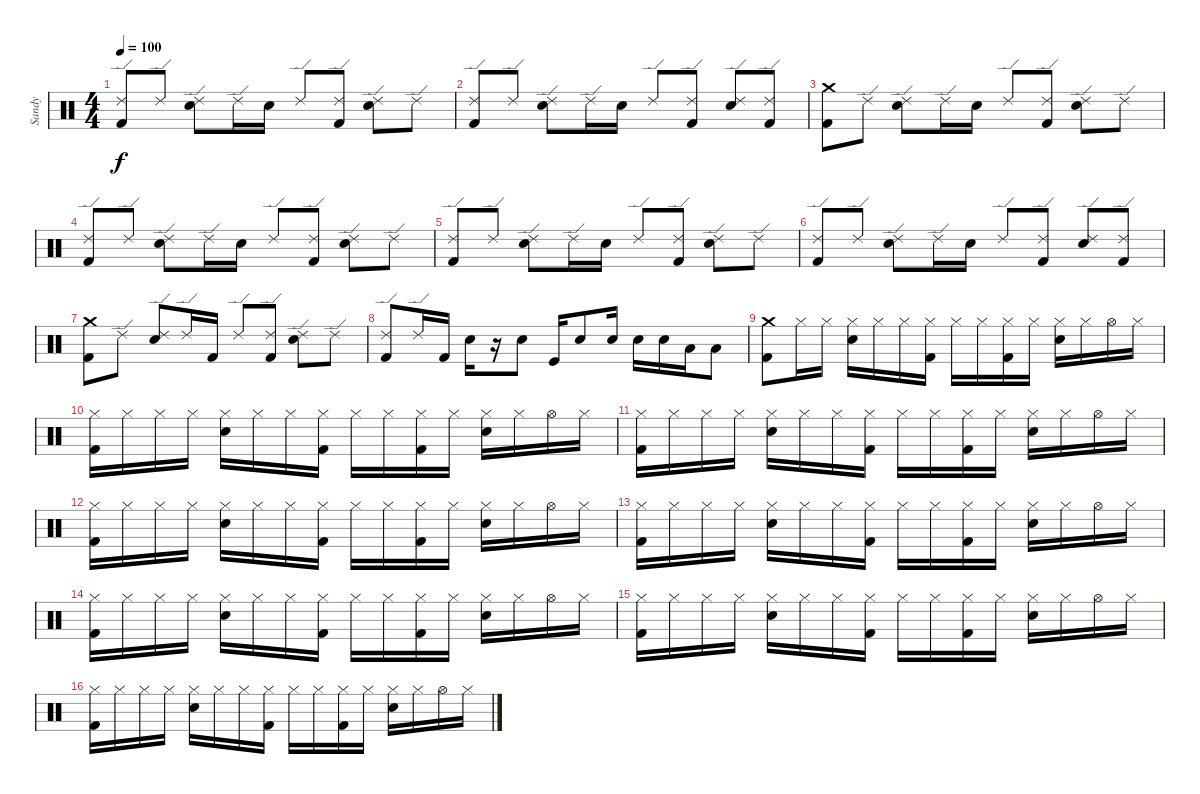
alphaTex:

\track ("Sandy" "Sandy") {instrument percussion}
\staff {score}
\articulation defaults
\ts (4 4)
\tempo 100
\clef neutral
\ks c
("Ride (edge) 2" "Kick (hit) 2").8{dy f} "Ride (edge) 2".8 ("Ride (edge) 2" "Snare (hit) 2").8 "Ride (edge) 2".16 "Snare (hit) 2".16 "Ride (edge) 2".8 ("Ride (edge) 2" "Kick (hit) 2").8 ("Ride (edge) 2" "Snare (hit) 2").8 "Ride (edge) 2".8 |
("Ride (edge) 2" "Kick (hit) 2").8 "Ride (edge) 2".8 ("Ride (edge) 2" "Snare (hit) 2").8 "Ride (edge) 2".16 "Snare (hit) 2".16 "Ride (edge) 2".8 ("Ride (edge) 2" "Kick (hit) 2").8 ("Ride (edge) 2" "Snare (hit) 2").8 ("Ride (edge) 2" "Kick (hit) 2").8 |
("Crash medium (hit)" "Kick (hit) 2").8 "Ride (edge) 2".8 ("Ride (edge) 2" "Snare (hit) 2").8 "Ride (edge) 2".16 "Snare (hit) 2".16 "Ride (edge) 2".8 ("Ride (edge) 2" "Kick (hit) 2").8 ("Ride (edge) 2" "Snare (hit) 2").8 "Ride (edge) 2".8 |
("Ride (edge) 2" "Kick (hit) 2").8 "Ride (edge) 2".8 ("Ride (edge) 2" "Snare (hit) 2").8 "Ride (edge) 2".16 "Snare (hit) 2".16 "Ride (edge) 2".8 ("Ride (edge) 2" "Kick (hit) 2").8 ("Ride (edge) 2" "Snare (hit) 2").8 "Ride (edge) 2".8 |
("Ride (edge) 2" "Kick (hit) 2").8 "Ride (edge) 2".8 ("Ride (edge) 2" "Snare (hit) 2").8 "Ride (edge) 2".16 "Snare (hit) 2".16 "Ride (edge) 2".8 ("Ride (edge) 2" "Kick (hit) 2").8 ("Ride (edge) 2" "Snare (hit) 2").8 "Ride (edge) 2".8 |
("Ride (edge) 2" "Kick (hit) 2").8 "Ride (edge) 2".8 ("Ride (edge) 2" "Snare (hit) 2").8 "Ride (edge) 2".16 "Snare (hit) 2".16 "Ride (edge) 2".8 ("Ride (edge) 2" "Kick (hit) 2").8 ("Ride (edge) 2" "Snare (hit) 2").8 ("Ride (edge) 2" "Kick (hit) 2").8 |
("Crash medium (hit)" "Kick (hit) 2").8 "Ride (edge) 2".8 ("Ride (edge) 2" "Snare (hit) 2").8 "Ride (edge) 2".16 "Kick (hit) 2".16 "Ride (edge) 2".8 ("Ride (edge) 2" "Kick (hit) 2").8 ("Ride (edge) 2" "Snare (hit) 2").8 "Ride (edge) 2".8 |
("Ride (edge) 2" "Kick (hit) 2").8 "Ride (edge) 2".16 "Kick (hit) 2".16 "Electric Snare (hit)".16 r.16 "Electric Snare (hit)".8 "Kick (hit)".16 "Electric Snare (hit)".8 "Electric Snare (hit)".16 "Electric Snare (hit)".16 "Electric Snare (hit)".16 "Low Tom (hit)".16 "Low Tom (hit)".8 |
("Crash medium (hit)" "Kick (hit) 2").8 "Hi-Hat (closed)".16 "Hi-Hat (closed)".16 ("Hi-Hat (closed)" "Snare (hit) 2").16 "Hi-Hat (closed)".16 "Hi-Hat (closed)".16 ("Hi-Hat (closed)" "Kick (hit) 2").16 "Hi-Hat (closed)".16 "Hi-Hat (closed)".16 ("Hi-Hat (closed)" "Kick (hit) 2").16 "Hi-Hat (closed)".16 ("Hi-Hat (closed)" "Snare (hit) 2").16 "Hi-Hat (closed)".16 "Hi-Hat (open)".16 "Hi-Hat (closed)".16 |
("Hi-Hat (closed)" "Kick (hit) 2").16 "Hi-Hat (closed)".16 "Hi-Hat (closed)".16 "Hi-Hat (closed)".16 ("Hi-Hat (closed)" "Snare (hit) 2").16 "Hi-Hat (closed)".16 "Hi-Hat (closed)".16 ("Hi-Hat (closed)" "Kick (hit) 2").16 "Hi-Hat (closed)".16 "Hi-Hat (closed)".16 ("Hi-Hat (closed)" "Kick (hit) 2").16 "Hi-Hat (closed)".16 ("Hi-Hat (closed)" "Snare (hit) 2").16 "Hi-Hat (closed)".16 "Hi-Hat (open)".16 "Hi-Hat (closed)".16 |
("Hi-Hat (closed)" "Kick (hit) 2").16 "Hi-Hat (closed)".16 "Hi-Hat (closed)".16 "Hi-Hat (closed)".16 ("Hi-Hat (closed)" "Snare (hit) 2").16 "Hi-Hat (closed)".16 "Hi-Hat (closed)".16 ("Hi-Hat (closed)" "Kick (hit) 2").16 "Hi-Hat (closed)".16 "Hi-Hat (closed)".16 ("Hi-Hat (closed)" "Kick (hit) 2").16 "Hi-Hat (closed)".16 ("Hi-Hat (closed)" "Snare (hit) 2").16 "Hi-Hat (closed)".16 "Hi-Hat (open)".16 "Hi-Hat (closed)".16 |
("Hi-Hat (closed)" "Kick (hit) 2").16 "Hi-Hat (closed)".16 "Hi-Hat (closed)".16 "Hi-Hat (closed)".16 ("Hi-Hat (closed)" "Snare (hit) 2").16 "Hi-Hat (closed)".16 "Hi-Hat (closed)".16 ("Hi-Hat (closed)" "Kick (hit) 2").16 "Hi-Hat (closed)".16 "Hi-Hat (closed)".16 ("Hi-Hat (closed)" "Kick (hit) 2").16 "Hi-Hat (closed)".16 ("Hi-Hat (closed)" "Snare (hit) 2").16 "Hi-Hat (closed)".16 "Hi-Hat (open)".16 "Hi-Hat (closed)".16 |
("Hi-Hat (closed)" "Kick (hit) 2").16 "Hi-Hat (closed)".16 "Hi-Hat (closed)".16 "Hi-Hat (closed)".16 ("Hi-Hat (closed)" "Snare (hit) 2").16 "Hi-Hat (closed)".16 "Hi-Hat (closed)".16 ("Hi-Hat (closed)" "Kick (hit) 2").16 "Hi-Hat (closed)".16 "Hi-Hat (closed)".16 ("Hi-Hat (closed)" "Kick (hit) 2").16 "Hi-Hat (closed)".16 ("Hi-Hat (closed)" "Snare (hit) 2").16 "Hi-Hat (closed)".16 "Hi-Hat (open)".16 "Hi-Hat (closed)".16 |
("Hi-Hat (closed)" "Kick (hit) 2").16 "Hi-Hat (closed)".16 "Hi-Hat (closed)".16 "Hi-Hat (closed)".16 ("Hi-Hat (closed)" "Snare (hit) 2").16 "Hi-Hat (closed)".16 "Hi-Hat (closed)".16 ("Hi-Hat (closed)" "Kick (hit) 2").16 "Hi-Hat (closed)".16 "Hi-Hat (closed)".16 ("Hi-Hat (closed)" "Kick (hit) 2").16 "Hi-Hat (closed)".16 ("Hi-Hat (closed)" "Snare (hit) 2").16 "Hi-Hat (closed)".16 "Hi-Hat (open)".16 "Hi-Hat (closed)".16 |
("Hi-Hat (closed)" "Kick (hit) 2").16 "Hi-Hat (closed)".16 "Hi-Hat (closed)".16 "Hi-Hat (closed)".16 ("Hi-Hat (closed)" "Snare (hit) 2").16 "Hi-Hat (closed)".16 "Hi-Hat (closed)".16 ("Hi-Hat (closed)" "Kick (hit) 2").16 "Hi-Hat (closed)".16 "Hi-Hat (closed)".16 ("Hi-Hat (closed)" "Kick (hit) 2").16 "Hi-Hat (closed)".16 ("Hi-Hat (closed)" "Snare (hit) 2").16 "Hi-Hat (closed)".16 "Hi-Hat (open)".16 "Hi-Hat (closed)".16 |
("Hi-Hat (closed)" "Kick (hit) 2").16 "Hi-Hat (closed)".16 "Hi-Hat (closed)".16 "Hi-Hat (closed)".16 ("Hi-Hat (closed)" "Snare (hit) 2").16 "Hi-Hat (closed)".16 "Hi-Hat (closed)".16 ("Hi-Hat (closed)" "Kick (hit) 2").16 "Hi-Hat (closed)".16 "Hi-Hat (closed)".16 ("Hi-Hat (closed)" "Kick (hit) 2").16 "Hi-Hat (closed)".16 ("Hi-Hat (closed)" "Snare (hit) 2").16 "Hi-Hat (closed)".16 "Hi-Hat (open)".16 "Hi-Hat (closed)".16
